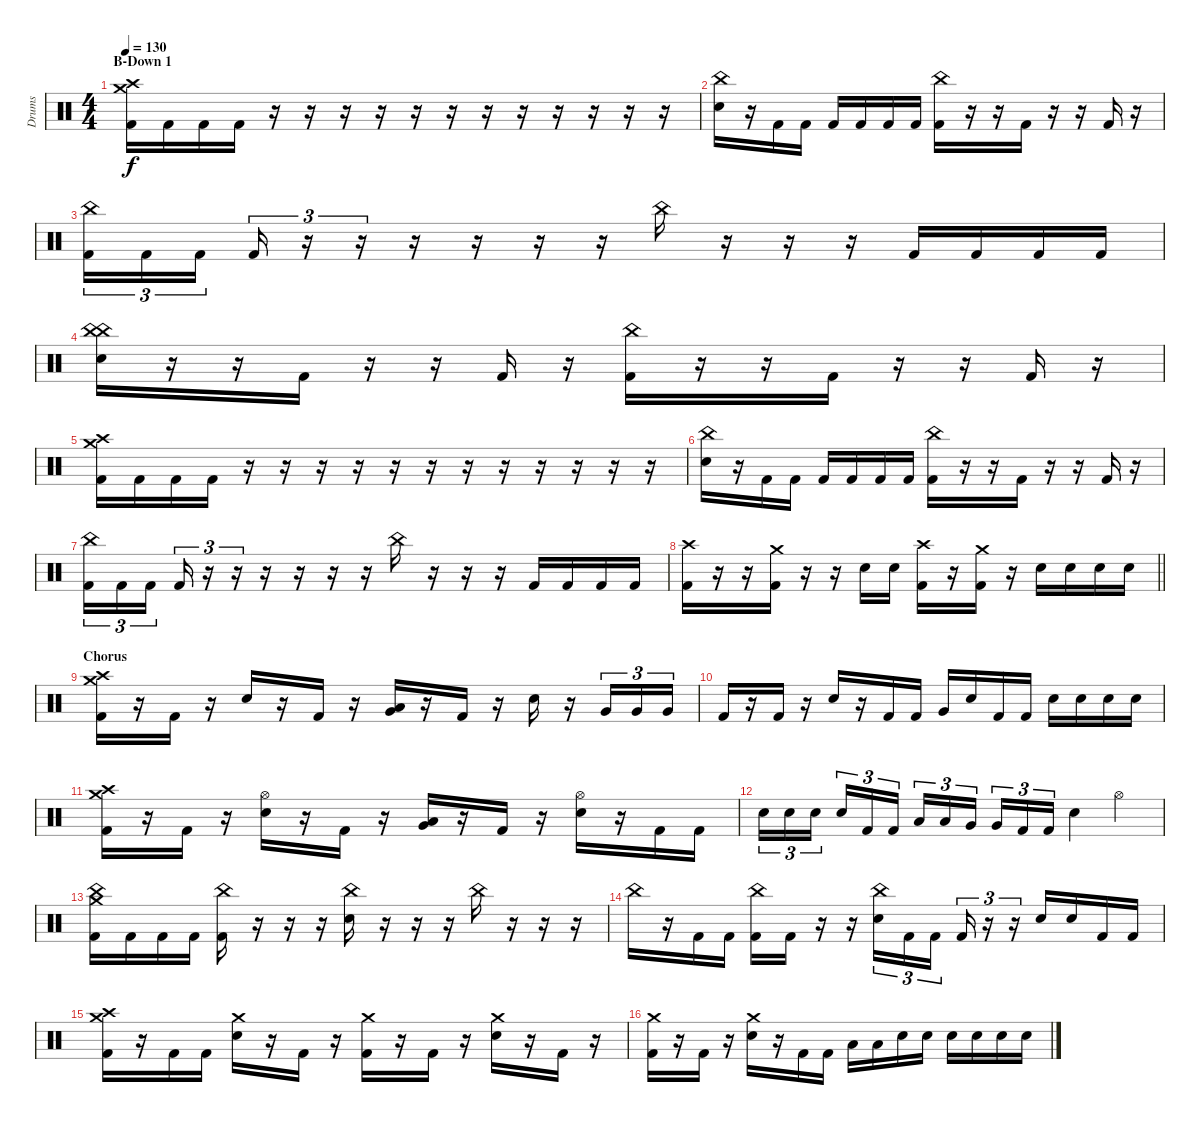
\track ("Drums" "Drums") {instrument percussion}
\staff {score}
\articulation defaults
\ts (4 4)
\section ("" "B-Down 1")
\tempo 130
\clef neutral
\ks c
("Crash medium (hit)" "Crash high (hit)" "Kick (hit) 2").16{dy f} "Kick (hit) 2".16 "Kick (hit) 2".16 "Kick (hit) 2".16 r.16 r.16 r.16 r.16 r.16 r.16 r.16 r.16 r.16 r.16 r.16 r.16 |
("China (hit)" "Electric Snare (hit)").16 r.16 "Kick (hit) 2".16 "Kick (hit) 2".16 "Kick (hit) 2".16 "Kick (hit) 2".16 "Kick (hit) 2".16 "Kick (hit) 2".16 ("China (hit)" "Kick (hit) 2").16 r.16 r.16 "Kick (hit) 2".16 r.16 r.16 "Kick (hit) 2".16 r.16 |
("China (hit)" "Kick (hit) 2").16{tu (3 2)} "Kick (hit) 2".16{tu (3 2)} "Kick (hit) 2".16{tu (3 2) beam splitsecondary} "Kick (hit) 2".16{tu (3 2)} r.16{tu (3 2)} r.16{tu (3 2)} r.16 r.16 r.16 r.16 "China (hit)".16 r.16 r.16 r.16 "Kick (hit) 2".16 "Kick (hit) 2".16 "Kick (hit) 2".16 "Kick (hit) 2".16 |
("China (hit)" "China (hit)" "Electric Snare (hit)").16 r.16 r.16 "Kick (hit) 2".16 r.16 r.16 "Kick (hit) 2".16 r.16 ("China (hit)" "Kick (hit) 2").16 r.16 r.16 "Kick (hit) 2".16 r.16 r.16 "Kick (hit) 2".16 r.16 |
("Crash medium (hit)" "Crash high (hit)" "Kick (hit) 2").16 "Kick (hit) 2".16 "Kick (hit) 2".16 "Kick (hit) 2".16 r.16 r.16 r.16 r.16 r.16 r.16 r.16 r.16 r.16 r.16 r.16 r.16 |
("China (hit)" "Electric Snare (hit)").16 r.16 "Kick (hit) 2".16 "Kick (hit) 2".16 "Kick (hit) 2".16 "Kick (hit) 2".16 "Kick (hit) 2".16 "Kick (hit) 2".16 ("China (hit)" "Kick (hit) 2").16 r.16 r.16 "Kick (hit) 2".16 r.16 r.16 "Kick (hit) 2".16 r.16 |
("China (hit)" "Kick (hit) 2").16{tu (3 2)} "Kick (hit) 2".16{tu (3 2)} "Kick (hit) 2".16{tu (3 2) beam splitsecondary} "Kick (hit) 2".16{tu (3 2)} r.16{tu (3 2)} r.16{tu (3 2)} r.16 r.16 r.16 r.16 "China (hit)".16 r.16 r.16 r.16 "Kick (hit) 2".16 "Kick (hit) 2".16 "Kick (hit) 2".16 "Kick (hit) 2".16 |
\barLineRight lightlight
("Crash high (hit)" "Kick (hit) 2").16 r.16 r.16 ("Crash medium (hit)" "Kick (hit) 2").16 r.16 r.16 "Electric Snare (hit)".16 "Electric Snare (hit)".16 ("Crash high (hit)" "Kick (hit) 2").16 r.16 ("Crash medium (hit)" "Kick (hit) 2").16 r.16 "Electric Snare (hit)".16 "Electric Snare (hit)".16 "Electric Snare (hit)".16 "Electric Snare (hit)".16 |
\section ("" "Chorus")
("Crash medium (hit)" "Crash high (hit)" "Kick (hit) 2").16 r.16 "Kick (hit) 2".16 r.16 "Electric Snare (hit)".16 r.16 "Kick (hit) 2".16 r.16 ("Low Tom (hit)" "Very Low Tom (hit)").16 r.16 "Kick (hit) 2".16 r.16 "Electric Snare (hit)".16 r.16 "Very Low Tom (hit)".16{tu (3 2)} "Very Low Tom (hit)".16{tu (3 2)} "Very Low Tom (hit)".16{tu (3 2)} |
"Kick (hit) 2".16 r.16 "Kick (hit) 2".16 r.16 "Electric Snare (hit)".16 r.16 "Kick (hit) 2".16 "Kick (hit) 2".16 "Very Low Tom (hit)".16 "Electric Snare (hit)".16 "Kick (hit) 2".16 "Kick (hit) 2".16 "Electric Snare (hit)".16 "Electric Snare (hit)".16 "Electric Snare (hit)".16 "Electric Snare (hit)".16 |
("Crash medium (hit)" "Crash high (hit)" "Kick (hit) 2").16 r.16 "Kick (hit) 2".16 r.16 ("Hi-Hat (open)" "Electric Snare (hit)").16 r.16 "Kick (hit) 2".16 r.16 ("Low Tom (hit)" "Very Low Tom (hit)").16 r.16 "Kick (hit) 2".16 r.16 ("Hi-Hat (open)" "Electric Snare (hit)").16 r.16 "Kick (hit) 2".16 "Kick (hit) 2".16 |
"Electric Snare (hit)".16{tu (3 2)} "Electric Snare (hit)".16{tu (3 2)} "Electric Snare (hit)".16{tu (3 2) beam splitsecondary} "Electric Snare (hit)".16{tu (3 2)} "Kick (hit) 2".16{tu (3 2)} "Kick (hit) 2".16{tu (3 2)} "Low Tom (hit)".16{tu (3 2)} "Low Tom (hit)".16{tu (3 2)} "Very Low Tom (hit)".16{tu (3 2) beam splitsecondary} "Very Low Tom (hit)".16{tu (3 2)} "Kick (hit) 2".16{tu (3 2)} "Kick (hit) 2".16{tu (3 2)} "Electric Snare (hit)".4 "Hi-Hat (open)".4 |
("Crash medium (hit)" "China (hit)" "Kick (hit) 2").16 "Kick (hit) 2".16 "Kick (hit) 2".16 "Kick (hit) 2".16 ("China (hit)" "Kick (hit) 2").16 r.16 r.16 r.16 ("China (hit)" "Electric Snare (hit)").16 r.16 r.16 r.16 "China (hit)".16 r.16 r.16 r.16 |
"China (hit)".16 r.16 "Kick (hit) 2".16 "Kick (hit) 2".16 ("China (hit)" "Kick (hit) 2").16 "Kick (hit) 2".16 r.16 r.16 ("China (hit)" "Electric Snare (hit)").16{tu (3 2)} "Kick (hit) 2".16{tu (3 2)} "Kick (hit) 2".16{tu (3 2) beam splitsecondary} "Kick (hit) 2".16{tu (3 2)} r.16{tu (3 2)} r.16{tu (3 2)} "Electric Snare (hit)".16 "Electric Snare (hit)".16 "Kick (hit) 2".16 "Kick (hit) 2".16 |
("Crash medium (hit)" "Crash high (hit)" "Kick (hit) 2").16 r.16 "Kick (hit) 2".16 "Kick (hit) 2".16 ("Crash medium (hit)" "Electric Snare (hit)").16 r.16 "Kick (hit) 2".16 r.16 ("Crash medium (hit)" "Kick (hit) 2").16 r.16 "Kick (hit) 2".16 r.16 ("Crash medium (hit)" "Electric Snare (hit)").16 r.16 "Kick (hit) 2".16 r.16 |
("Crash medium (hit)" "Kick (hit) 2").16 r.16 "Kick (hit) 2".16 r.16 ("Crash medium (hit)" "Electric Snare (hit)").16 r.16 "Kick (hit) 2".16 "Kick (hit) 2".16 "Low Tom (hit)".16 "Low Tom (hit)".16 "Electric Snare (hit)".16 "Electric Snare (hit)".16 "Electric Snare (hit)".16 "Electric Snare (hit)".16 "Electric Snare (hit)".16 "Electric Snare (hit)".16
